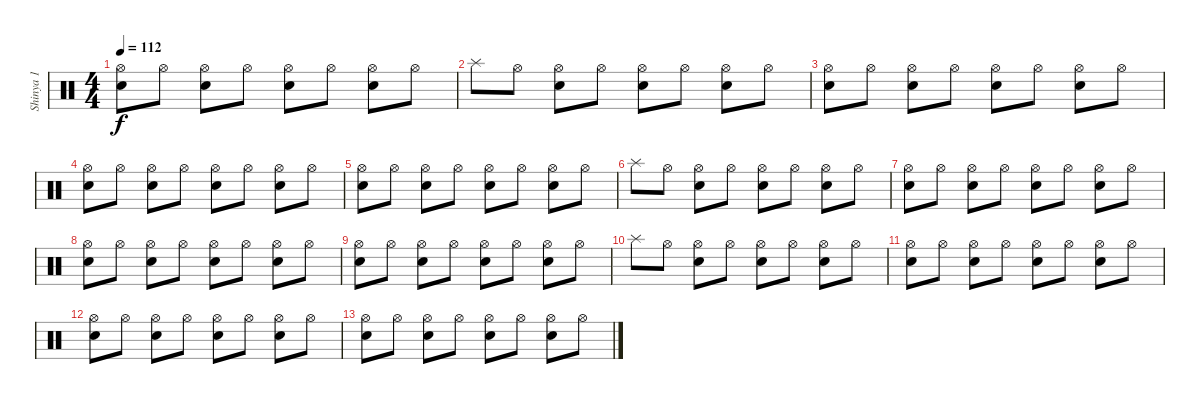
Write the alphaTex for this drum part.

\track ("Shinya 1" "Shinya 1") {instrument percussion}
\staff {score}
\articulation defaults
\ts (4 4)
\tempo 112
\clef neutral
\ks c
("Hi-Hat (open)" "Snare (hit) 2").8{dy f} "Hi-Hat (open)".8 ("Hi-Hat (open)" "Snare (hit) 2").8 "Hi-Hat (open)".8 ("Hi-Hat (open)" "Snare (hit) 2").8 "Hi-Hat (open)".8 ("Hi-Hat (open)" "Snare (hit) 2").8 "Hi-Hat (open)".8 |
"Splash (hit)".8 "Hi-Hat (open)".8 ("Hi-Hat (open)" "Snare (hit) 2").8 "Hi-Hat (open)".8 ("Hi-Hat (open)" "Snare (hit) 2").8 "Hi-Hat (open)".8 ("Hi-Hat (open)" "Snare (hit) 2").8 "Hi-Hat (open)".8 |
("Hi-Hat (open)" "Snare (hit) 2").8 "Hi-Hat (open)".8 ("Hi-Hat (open)" "Snare (hit) 2").8 "Hi-Hat (open)".8 ("Hi-Hat (open)" "Snare (hit) 2").8 "Hi-Hat (open)".8 ("Hi-Hat (open)" "Snare (hit) 2").8 "Hi-Hat (open)".8 |
("Hi-Hat (open)" "Snare (hit) 2").8 "Hi-Hat (open)".8 ("Hi-Hat (open)" "Snare (hit) 2").8 "Hi-Hat (open)".8 ("Hi-Hat (open)" "Snare (hit) 2").8 "Hi-Hat (open)".8 ("Hi-Hat (open)" "Snare (hit) 2").8 "Hi-Hat (open)".8 |
("Hi-Hat (open)" "Snare (hit) 2").8 "Hi-Hat (open)".8 ("Hi-Hat (open)" "Snare (hit) 2").8 "Hi-Hat (open)".8 ("Hi-Hat (open)" "Snare (hit) 2").8 "Hi-Hat (open)".8 ("Hi-Hat (open)" "Snare (hit) 2").8 "Hi-Hat (open)".8 |
"Splash (hit)".8{volume 7} "Hi-Hat (open)".8 ("Hi-Hat (open)" "Snare (hit) 2").8 "Hi-Hat (open)".8 ("Hi-Hat (open)" "Snare (hit) 2").8 "Hi-Hat (open)".8 ("Hi-Hat (open)" "Snare (hit) 2").8 "Hi-Hat (open)".8 |
("Hi-Hat (open)" "Snare (hit) 2").8 "Hi-Hat (open)".8 ("Hi-Hat (open)" "Snare (hit) 2").8 "Hi-Hat (open)".8 ("Hi-Hat (open)" "Snare (hit) 2").8 "Hi-Hat (open)".8 ("Hi-Hat (open)" "Snare (hit) 2").8 "Hi-Hat (open)".8 |
("Hi-Hat (open)" "Snare (hit) 2").8 "Hi-Hat (open)".8 ("Hi-Hat (open)" "Snare (hit) 2").8 "Hi-Hat (open)".8 ("Hi-Hat (open)" "Snare (hit) 2").8 "Hi-Hat (open)".8 ("Hi-Hat (open)" "Snare (hit) 2").8 "Hi-Hat (open)".8 |
("Hi-Hat (open)" "Snare (hit) 2").8 "Hi-Hat (open)".8 ("Hi-Hat (open)" "Snare (hit) 2").8 "Hi-Hat (open)".8 ("Hi-Hat (open)" "Snare (hit) 2").8 "Hi-Hat (open)".8 ("Hi-Hat (open)" "Snare (hit) 2").8 "Hi-Hat (open)".8 |
"Splash (hit)".8{volume 2} "Hi-Hat (open)".8 ("Hi-Hat (open)" "Snare (hit) 2").8 "Hi-Hat (open)".8 ("Hi-Hat (open)" "Snare (hit) 2").8 "Hi-Hat (open)".8 ("Hi-Hat (open)" "Snare (hit) 2").8 "Hi-Hat (open)".8 |
("Hi-Hat (open)" "Snare (hit) 2").8 "Hi-Hat (open)".8 ("Hi-Hat (open)" "Snare (hit) 2").8 "Hi-Hat (open)".8 ("Hi-Hat (open)" "Snare (hit) 2").8 "Hi-Hat (open)".8 ("Hi-Hat (open)" "Snare (hit) 2").8 "Hi-Hat (open)".8 |
("Hi-Hat (open)" "Snare (hit) 2").8 "Hi-Hat (open)".8 ("Hi-Hat (open)" "Snare (hit) 2").8 "Hi-Hat (open)".8 ("Hi-Hat (open)" "Snare (hit) 2").8 "Hi-Hat (open)".8 ("Hi-Hat (open)" "Snare (hit) 2").8 "Hi-Hat (open)".8 |
("Hi-Hat (open)" "Snare (hit) 2").8 "Hi-Hat (open)".8 ("Hi-Hat (open)" "Snare (hit) 2").8 "Hi-Hat (open)".8 ("Hi-Hat (open)" "Snare (hit) 2").8 "Hi-Hat (open)".8 ("Hi-Hat (open)" "Snare (hit) 2").8 "Hi-Hat (open)".8
